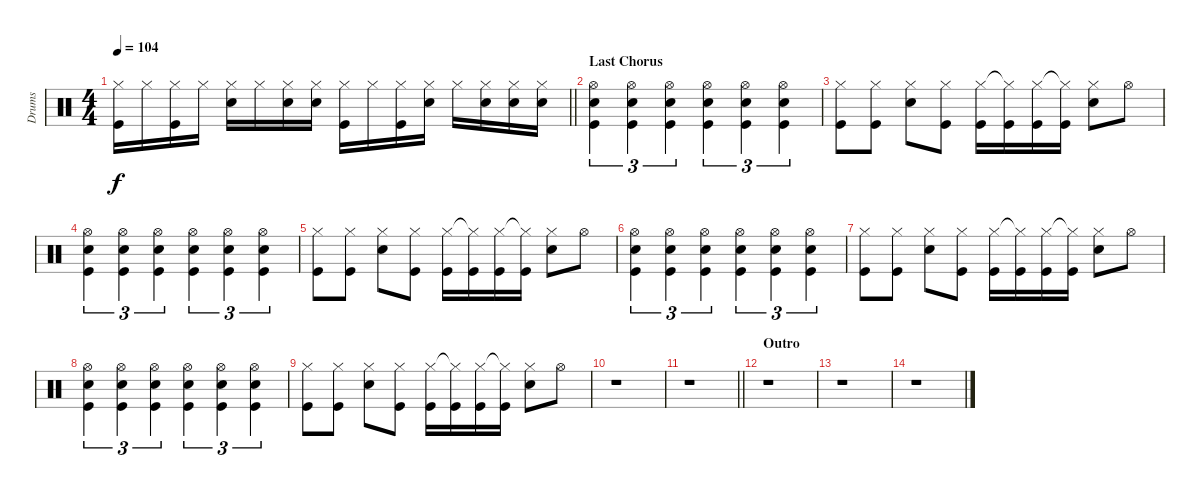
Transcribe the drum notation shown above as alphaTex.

\track ("Drums" "Drums") {instrument percussion}
\staff {score}
\articulation defaults
\ts (4 4)
\tempo 104
\clef neutral
\barLineRight lightlight
\ks c
("Hi-Hat (closed)" "Kick (hit)").16{dy f} "Hi-Hat (closed)".16 ("Hi-Hat (closed)" "Kick (hit)").16 "Hi-Hat (closed)".16 ("Hi-Hat (closed)" "Electric Snare (hit)").16 "Hi-Hat (closed)".16 ("Hi-Hat (closed)" "Electric Snare (hit)").16 ("Hi-Hat (closed)" "Electric Snare (hit)").16 ("Hi-Hat (closed)" "Kick (hit)").16 "Hi-Hat (closed)".16 ("Hi-Hat (closed)" "Kick (hit)").16 ("Hi-Hat (closed)" "Electric Snare (hit)").16 "Hi-Hat (closed)".16 ("Hi-Hat (closed)" "Electric Snare (hit)").16 ("Hi-Hat (closed)" "Electric Snare (hit)").16 ("Hi-Hat (closed)" "Electric Snare (hit)").16 |
\section ("" "Last Chorus")
("Hi-Hat (open)" "Electric Snare (hit)" "Kick (hit)").4{tu (3 2)} ("Hi-Hat (open)" "Electric Snare (hit)" "Kick (hit)").4{tu (3 2)} ("Hi-Hat (open)" "Electric Snare (hit)" "Kick (hit)").4{tu (3 2)} ("Hi-Hat (open)" "Electric Snare (hit)" "Kick (hit)").4{tu (3 2)} ("Hi-Hat (open)" "Electric Snare (hit)" "Kick (hit)").4{tu (3 2)} ("Hi-Hat (open)" "Electric Snare (hit)" "Kick (hit)").4{tu (3 2)} |
("Hi-Hat (closed)" "Kick (hit)").8 ("Hi-Hat (closed)" "Kick (hit)").8 ("Hi-Hat (closed)" "Electric Snare (hit)").8 ("Hi-Hat (closed)" "Kick (hit)").8 ("Hi-Hat (closed)" "Kick (hit)").16 ("Hi-Hat (closed)"{t} "Kick (hit)").16 ("Hi-Hat (closed)" "Kick (hit)").16 ("Hi-Hat (closed)"{t} "Kick (hit)").16 ("Hi-Hat (closed)" "Electric Snare (hit)").8 "Hi-Hat (open)".8 |
("Hi-Hat (open)" "Electric Snare (hit)" "Kick (hit)").4{tu (3 2)} ("Hi-Hat (open)" "Electric Snare (hit)" "Kick (hit)").4{tu (3 2)} ("Hi-Hat (open)" "Electric Snare (hit)" "Kick (hit)").4{tu (3 2)} ("Hi-Hat (open)" "Electric Snare (hit)" "Kick (hit)").4{tu (3 2)} ("Hi-Hat (open)" "Electric Snare (hit)" "Kick (hit)").4{tu (3 2)} ("Hi-Hat (open)" "Electric Snare (hit)" "Kick (hit)").4{tu (3 2)} |
("Hi-Hat (closed)" "Kick (hit)").8 ("Hi-Hat (closed)" "Kick (hit)").8 ("Hi-Hat (closed)" "Electric Snare (hit)").8 ("Hi-Hat (closed)" "Kick (hit)").8 ("Hi-Hat (closed)" "Kick (hit)").16 ("Hi-Hat (closed)"{t} "Kick (hit)").16 ("Hi-Hat (closed)" "Kick (hit)").16 ("Hi-Hat (closed)"{t} "Kick (hit)").16 ("Hi-Hat (closed)" "Electric Snare (hit)").8 "Hi-Hat (open)".8 |
("Hi-Hat (open)" "Electric Snare (hit)" "Kick (hit)").4{tu (3 2)} ("Hi-Hat (open)" "Electric Snare (hit)" "Kick (hit)").4{tu (3 2)} ("Hi-Hat (open)" "Electric Snare (hit)" "Kick (hit)").4{tu (3 2)} ("Hi-Hat (open)" "Electric Snare (hit)" "Kick (hit)").4{tu (3 2)} ("Hi-Hat (open)" "Electric Snare (hit)" "Kick (hit)").4{tu (3 2)} ("Hi-Hat (open)" "Electric Snare (hit)" "Kick (hit)").4{tu (3 2)} |
("Hi-Hat (closed)" "Kick (hit)").8 ("Hi-Hat (closed)" "Kick (hit)").8 ("Hi-Hat (closed)" "Electric Snare (hit)").8 ("Hi-Hat (closed)" "Kick (hit)").8 ("Hi-Hat (closed)" "Kick (hit)").16 ("Hi-Hat (closed)"{t} "Kick (hit)").16 ("Hi-Hat (closed)" "Kick (hit)").16 ("Hi-Hat (closed)"{t} "Kick (hit)").16 ("Hi-Hat (closed)" "Electric Snare (hit)").8 "Hi-Hat (open)".8 |
("Hi-Hat (open)" "Electric Snare (hit)" "Kick (hit)").4{tu (3 2)} ("Hi-Hat (open)" "Electric Snare (hit)" "Kick (hit)").4{tu (3 2)} ("Hi-Hat (open)" "Electric Snare (hit)" "Kick (hit)").4{tu (3 2)} ("Hi-Hat (open)" "Electric Snare (hit)" "Kick (hit)").4{tu (3 2)} ("Hi-Hat (open)" "Electric Snare (hit)" "Kick (hit)").4{tu (3 2)} ("Hi-Hat (open)" "Electric Snare (hit)" "Kick (hit)").4{tu (3 2)} |
("Hi-Hat (closed)" "Kick (hit)").8 ("Hi-Hat (closed)" "Kick (hit)").8 ("Hi-Hat (closed)" "Electric Snare (hit)").8 ("Hi-Hat (closed)" "Kick (hit)").8 ("Hi-Hat (closed)" "Kick (hit)").16 ("Hi-Hat (closed)"{t} "Kick (hit)").16 ("Hi-Hat (closed)" "Kick (hit)").16 ("Hi-Hat (closed)"{t} "Kick (hit)").16 ("Hi-Hat (closed)" "Electric Snare (hit)").8 "Hi-Hat (open)".8 |
r.1 |
\barLineRight lightlight
r.1 |
\section ("" "Outro")
r.1 |
r.1 |
r.1
